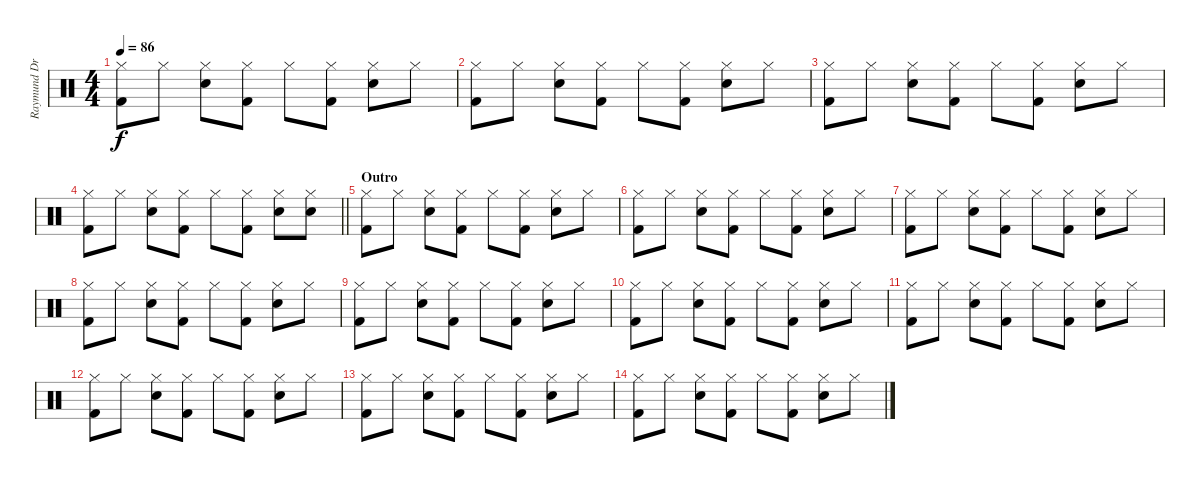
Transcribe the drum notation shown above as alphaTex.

\track ("Raymund Drums" "Raymund Dr") {instrument percussion}
\staff {score}
\articulation defaults
\ts (4 4)
\tempo 86
\clef neutral
\ks c
("Hi-Hat (closed)" "Kick (hit) 2").8{dy f} "Hi-Hat (closed)".8 ("Hi-Hat (closed)" "Snare (hit) 2").8 ("Hi-Hat (closed)" "Kick (hit) 2").8 "Hi-Hat (closed)".8 ("Hi-Hat (closed)" "Kick (hit) 2").8 ("Hi-Hat (closed)" "Snare (hit) 2").8 "Hi-Hat (closed)".8 |
("Hi-Hat (closed)" "Kick (hit) 2").8 "Hi-Hat (closed)".8 ("Hi-Hat (closed)" "Snare (hit) 2").8 ("Hi-Hat (closed)" "Kick (hit) 2").8 "Hi-Hat (closed)".8 ("Hi-Hat (closed)" "Kick (hit) 2").8 ("Hi-Hat (closed)" "Snare (hit) 2").8 "Hi-Hat (closed)".8 |
("Hi-Hat (closed)" "Kick (hit) 2").8 "Hi-Hat (closed)".8 ("Hi-Hat (closed)" "Snare (hit) 2").8 ("Hi-Hat (closed)" "Kick (hit) 2").8 "Hi-Hat (closed)".8 ("Hi-Hat (closed)" "Kick (hit) 2").8 ("Hi-Hat (closed)" "Snare (hit) 2").8 "Hi-Hat (closed)".8 |
\barLineRight lightlight
("Hi-Hat (closed)" "Kick (hit) 2").8 "Hi-Hat (closed)".8 ("Hi-Hat (closed)" "Snare (hit) 2").8 ("Hi-Hat (closed)" "Kick (hit) 2").8 "Hi-Hat (closed)".8 ("Hi-Hat (closed)" "Kick (hit) 2").8 ("Hi-Hat (closed)" "Snare (hit) 2").8 ("Hi-Hat (closed)" "Snare (hit) 2").8 |
\section ("" "Outro")
("Hi-Hat (closed)" "Kick (hit) 2").8 "Hi-Hat (closed)".8 ("Hi-Hat (closed)" "Snare (hit) 2").8 ("Hi-Hat (closed)" "Kick (hit) 2").8 "Hi-Hat (closed)".8 ("Hi-Hat (closed)" "Kick (hit) 2").8 ("Hi-Hat (closed)" "Snare (hit) 2").8 "Hi-Hat (closed)".8 |
("Hi-Hat (closed)" "Kick (hit) 2").8 "Hi-Hat (closed)".8 ("Hi-Hat (closed)" "Snare (hit) 2").8 ("Hi-Hat (closed)" "Kick (hit) 2").8 "Hi-Hat (closed)".8 ("Hi-Hat (closed)" "Kick (hit) 2").8 ("Hi-Hat (closed)" "Snare (hit) 2").8 "Hi-Hat (closed)".8 |
("Hi-Hat (closed)" "Kick (hit) 2").8 "Hi-Hat (closed)".8 ("Hi-Hat (closed)" "Snare (hit) 2").8 ("Hi-Hat (closed)" "Kick (hit) 2").8 "Hi-Hat (closed)".8 ("Hi-Hat (closed)" "Kick (hit) 2").8 ("Hi-Hat (closed)" "Snare (hit) 2").8 "Hi-Hat (closed)".8 |
("Hi-Hat (closed)" "Kick (hit) 2").8{volume 0} "Hi-Hat (closed)".8 ("Hi-Hat (closed)" "Snare (hit) 2").8 ("Hi-Hat (closed)" "Kick (hit) 2").8 "Hi-Hat (closed)".8 ("Hi-Hat (closed)" "Kick (hit) 2").8 ("Hi-Hat (closed)" "Snare (hit) 2").8 "Hi-Hat (closed)".8 |
("Hi-Hat (closed)" "Kick (hit) 2").8 "Hi-Hat (closed)".8 ("Hi-Hat (closed)" "Snare (hit) 2").8 ("Hi-Hat (closed)" "Kick (hit) 2").8 "Hi-Hat (closed)".8 ("Hi-Hat (closed)" "Kick (hit) 2").8 ("Hi-Hat (closed)" "Snare (hit) 2").8 "Hi-Hat (closed)".8 |
("Hi-Hat (closed)" "Kick (hit) 2").8 "Hi-Hat (closed)".8 ("Hi-Hat (closed)" "Snare (hit) 2").8 ("Hi-Hat (closed)" "Kick (hit) 2").8 "Hi-Hat (closed)".8 ("Hi-Hat (closed)" "Kick (hit) 2").8 ("Hi-Hat (closed)" "Snare (hit) 2").8 "Hi-Hat (closed)".8 |
("Hi-Hat (closed)" "Kick (hit) 2").8 "Hi-Hat (closed)".8 ("Hi-Hat (closed)" "Snare (hit) 2").8 ("Hi-Hat (closed)" "Kick (hit) 2").8 "Hi-Hat (closed)".8 ("Hi-Hat (closed)" "Kick (hit) 2").8 ("Hi-Hat (closed)" "Snare (hit) 2").8 "Hi-Hat (closed)".8 |
("Hi-Hat (closed)" "Kick (hit) 2").8 "Hi-Hat (closed)".8 ("Hi-Hat (closed)" "Snare (hit) 2").8 ("Hi-Hat (closed)" "Kick (hit) 2").8 "Hi-Hat (closed)".8 ("Hi-Hat (closed)" "Kick (hit) 2").8 ("Hi-Hat (closed)" "Snare (hit) 2").8 "Hi-Hat (closed)".8 |
("Hi-Hat (closed)" "Kick (hit) 2").8 "Hi-Hat (closed)".8 ("Hi-Hat (closed)" "Snare (hit) 2").8 ("Hi-Hat (closed)" "Kick (hit) 2").8 "Hi-Hat (closed)".8 ("Hi-Hat (closed)" "Kick (hit) 2").8 ("Hi-Hat (closed)" "Snare (hit) 2").8 "Hi-Hat (closed)".8 |
("Hi-Hat (closed)" "Kick (hit) 2").8 "Hi-Hat (closed)".8 ("Hi-Hat (closed)" "Snare (hit) 2").8 ("Hi-Hat (closed)" "Kick (hit) 2").8 "Hi-Hat (closed)".8 ("Hi-Hat (closed)" "Kick (hit) 2").8 ("Hi-Hat (closed)" "Snare (hit) 2").8 "Hi-Hat (closed)".8
